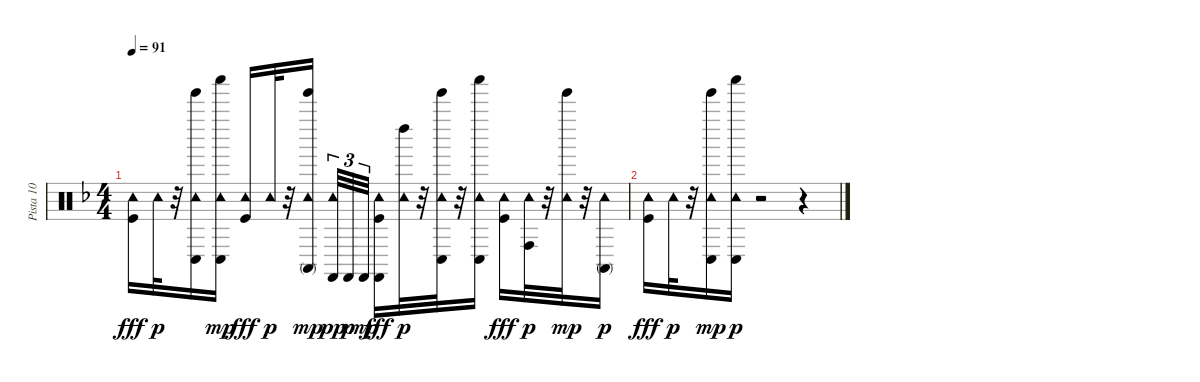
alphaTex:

\track ("Pista 10" "Pista 10") {instrument percussion}
\staff {score}
\articulation defaults
\ts (4 4)
\tempo 91
\clef neutral
\ks f
("Kick (hit)" "Tambourine (hit)").16{dy fff volume 5} "Tambourine (hit)".32{dy p volume 5} r.32 ("Tinkle Bell (hit)" "Conga low (hit)" "Tambourine (hit)").16{volume 5} ("Tambourine (hit)" "Shaker (hit)" "Conga low (hit)").16{dy mp volume 4} ("Kick (hit)" "Tambourine (hit)").16{dy fff volume 4} "Tambourine (hit)".32{dy p volume 4} r.32 ("Conga high (mute)" "Tambourine (hit)" "Tinkle Bell (hit)").16{dy mp volume 4 beam splitsecondary} ("Tambourine (hit)" "Castanets (hit)").32{tu (3 2) dy pp volume 3} "Castanets (hit)".32{tu (3 2) dy p volume 3} "Castanets (hit)".32{tu (3 2) dy mp volume 3} ("Kick (hit)" "Castanets (hit)" "Tambourine (hit)").16{dy fff volume 3} ("Left Maraca (hit)" "Tambourine (hit)").32{dy p volume 3} r.32 ("Tambourine (hit)" "Conga low (hit)" "Tinkle Bell (hit)").32{volume 2} r.32 ("Tambourine (hit)" "Shaker (hit)" "Conga low (hit)").16{volume 2} ("Kick (hit)" "Tambourine (hit)").16{dy fff volume 2} ("Conga high (hit)" "Tambourine (hit)").32{dy p volume 2} r.32 ("Tambourine (hit)" "Tinkle Bell (hit)").32{dy mp volume 1} r.32 ("Conga high (mute)" "Tambourine (hit)").16{dy p volume 1} |
("Kick (hit)" "Tambourine (hit)").16{dy fff volume 1} "Tambourine (hit)".32{dy p volume 0} r.32 ("Tambourine (hit)" "Conga low (hit)" "Tinkle Bell (hit)").16{dy mp volume 0} ("Conga low (hit)" "Shaker (hit)" "Tambourine (hit)").16{dy p volume 12} r.2 r.4
